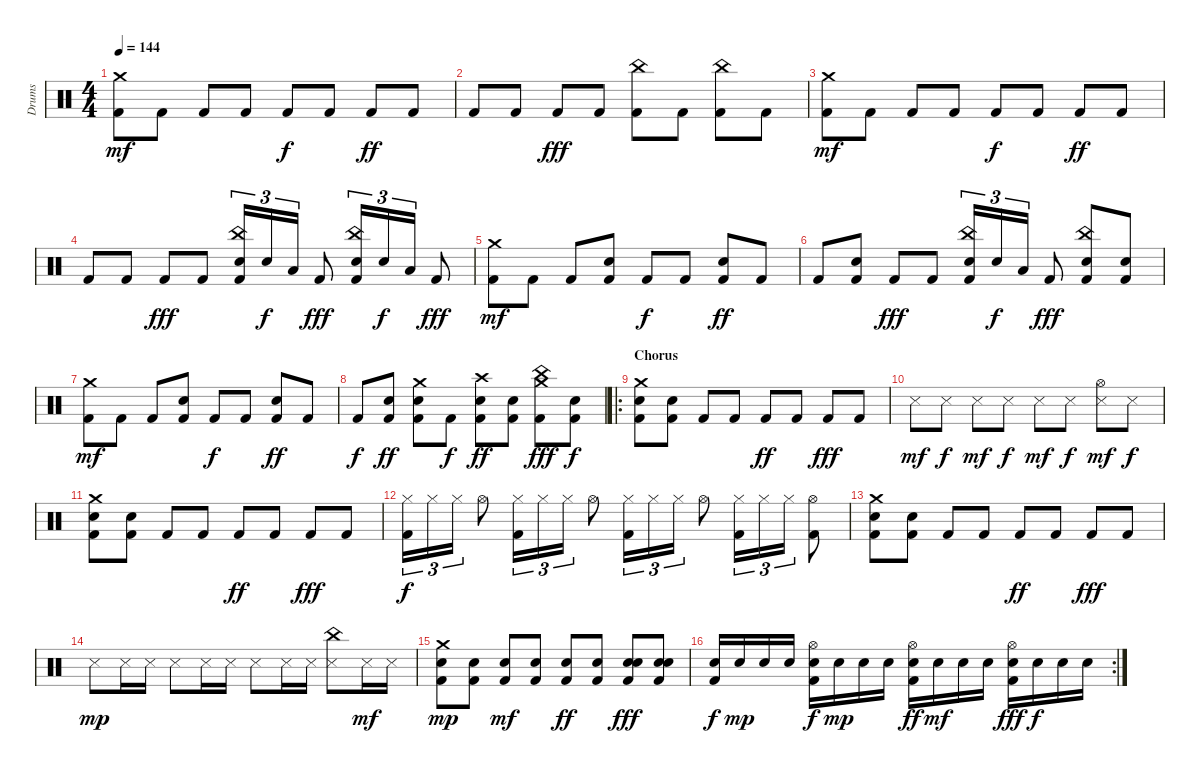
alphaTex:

\track ("Drums" "Drums") {instrument percussion}
\staff {score}
\articulation defaults
\ts (4 4)
\tempo 144
\clef neutral
\ks c
("Crash medium (hit)" "Kick (hit) 2").8{dy mf} "Kick (hit) 2".8 "Kick (hit) 2".8 "Kick (hit) 2".8 "Kick (hit) 2".8{dy f} "Kick (hit) 2".8 "Kick (hit) 2".8{dy ff} "Kick (hit) 2".8 |
"Kick (hit) 2".8 "Kick (hit) 2".8 "Kick (hit) 2".8{dy fff} "Kick (hit) 2".8 ("China (hit)" "Kick (hit) 2").8 "Kick (hit) 2".8 ("China (hit)" "Kick (hit) 2").8 "Kick (hit) 2".8 |
("Crash medium (hit)" "Kick (hit) 2").8{dy mf} "Kick (hit) 2".8 "Kick (hit) 2".8 "Kick (hit) 2".8 "Kick (hit) 2".8{dy f} "Kick (hit) 2".8 "Kick (hit) 2".8{dy ff} "Kick (hit) 2".8 |
"Kick (hit) 2".8 "Kick (hit) 2".8 "Kick (hit) 2".8{dy fff} "Kick (hit) 2".8 ("China (hit)" "Snare (hit) 2" "Kick (hit) 2").16{tu (3 2)} "Snare (hit) 2".16{tu (3 2) dy f} "Low Tom (hit)".16{tu (3 2)} "Kick (hit) 2".8{dy fff} ("China (hit)" "Snare (hit) 2" "Kick (hit) 2").16{tu (3 2)} "Snare (hit) 2".16{tu (3 2) dy f} "Low Tom (hit)".16{tu (3 2)} "Kick (hit) 2".8{dy fff} |
("Crash medium (hit)" "Kick (hit) 2").8{dy mf} "Kick (hit) 2".8 "Kick (hit) 2".8 ("Snare (hit) 2" "Kick (hit) 2").8 "Kick (hit) 2".8{dy f} "Kick (hit) 2".8 ("Snare (hit) 2" "Kick (hit) 2").8{dy ff} "Kick (hit) 2".8 |
"Kick (hit) 2".8 ("Snare (hit) 2" "Kick (hit) 2").8 "Kick (hit) 2".8{dy fff} "Kick (hit) 2".8 ("China (hit)" "Snare (hit) 2" "Kick (hit) 2").16{tu (3 2)} "Snare (hit) 2".16{tu (3 2) dy f} "Low Tom (hit)".16{tu (3 2)} "Kick (hit) 2".8{dy fff} ("China (hit)" "Snare (hit) 2" "Kick (hit) 2").8 ("Snare (hit) 2" "Kick (hit) 2").8 |
("Crash medium (hit)" "Kick (hit) 2").8{dy mf} "Kick (hit) 2".8 "Kick (hit) 2".8 ("Snare (hit) 2" "Kick (hit) 2").8 "Kick (hit) 2".8{dy f} "Kick (hit) 2".8 ("Snare (hit) 2" "Kick (hit) 2").8{dy ff} "Kick (hit) 2".8 |
"Kick (hit) 2".8{dy f} ("Snare (hit) 2" "Kick (hit) 2").8{dy ff} ("Crash medium (hit)" "Snare (hit) 2" "Kick (hit) 2").8 "Kick (hit) 2".8{dy f} ("Crash high (hit)" "Snare (hit) 2" "Kick (hit) 2").8{dy ff} ("Snare (hit) 2" "Kick (hit) 2").8 ("Crash medium (hit)" "China (hit)" "Kick (hit) 2").8{dy fff} ("Snare (hit) 2" "Kick (hit) 2").8{dy f} |
\ro
\section ("" "Chorus")
("Crash medium (hit)" "Snare (hit) 2" "Kick (hit) 2").8 ("Snare (hit) 2" "Kick (hit) 2").8 "Kick (hit) 2".8 "Kick (hit) 2".8 "Kick (hit) 2".8{dy ff} "Kick (hit) 2".8 "Kick (hit) 2".8{dy fff} "Kick (hit) 2".8 |
"Snare (side stick) 3".8{dy mf} "Metronome (hit)".8{dy f} "Snare (side stick) 3".8{dy mf} "Metronome (hit)".8{dy f} "Snare (side stick) 3".8{dy mf} "Metronome (hit)".8{dy f} ("Hi-Hat (open)" "Snare (side stick) 3").8{dy mf} "Metronome (hit)".8{dy f} |
("Crash medium (hit)" "Snare (hit) 2" "Kick (hit) 2").8 ("Snare (hit) 2" "Kick (hit) 2").8 "Kick (hit) 2".8 "Kick (hit) 2".8 "Kick (hit) 2".8{dy ff} "Kick (hit) 2".8 "Kick (hit) 2".8{dy fff} "Kick (hit) 2".8 |
("Hi-Hat (closed)" "Kick (hit) 2").16{tu (3 2) dy f} "Hi-Hat (closed)".16{tu (3 2)} "Hi-Hat (closed)".16{tu (3 2)} "Hi-Hat (open)".8 ("Hi-Hat (closed)" "Kick (hit) 2").16{tu (3 2)} "Hi-Hat (closed)".16{tu (3 2)} "Hi-Hat (closed)".16{tu (3 2)} "Hi-Hat (open)".8 ("Hi-Hat (closed)" "Kick (hit) 2").16{tu (3 2)} "Hi-Hat (closed)".16{tu (3 2)} "Hi-Hat (closed)".16{tu (3 2)} "Hi-Hat (open)".8 ("Hi-Hat (closed)" "Kick (hit) 2").16{tu (3 2)} "Hi-Hat (closed)".16{tu (3 2)} "Hi-Hat (closed)".16{tu (3 2)} ("Hi-Hat (open)" "Kick (hit) 2").8 |
("Crash medium (hit)" "Snare (hit) 2" "Kick (hit) 2").8 ("Snare (hit) 2" "Kick (hit) 2").8 "Kick (hit) 2".8 "Kick (hit) 2".8 "Kick (hit) 2".8{dy ff} "Kick (hit) 2".8 "Kick (hit) 2".8{dy fff} "Kick (hit) 2".8 |
"Snare (side stick) 3".8{dy mp} "Snare (side stick) 3".16 "Snare (side stick) 3".16 "Snare (side stick) 3".8 "Snare (side stick) 3".16 "Snare (side stick) 3".16 "Snare (side stick) 3".8 "Snare (side stick) 3".16 "Snare (side stick) 3".16 ("China (hit)" "Snare (side stick) 3").8 "Snare (side stick) 3".16{dy mf} "Snare (side stick) 3".16 |
("Crash medium (hit)" "Snare (hit) 2" "Kick (hit) 2").8{dy mp} ("Snare (hit) 2" "Kick (hit) 2").8 ("Snare (hit) 2" "Kick (hit) 2").8{dy mf} ("Snare (hit) 2" "Kick (hit) 2").8 ("Snare (hit) 2" "Kick (hit) 2").8{dy ff} ("Snare (hit) 2" "Kick (hit) 2").8 ("Snare (hit) 2" "Snare (hit) 2" "Kick (hit) 2").8{dy fff} ("Snare (hit) 2" "Snare (hit) 2" "Kick (hit) 2").8 |
\rc 2
("Snare (hit) 2" "Kick (hit) 2").16{dy f} "Snare (hit) 2".16{dy mp} "Snare (hit) 2".16 "Snare (hit) 2".16 ("Hi-Hat (open)" "Snare (hit) 2" "Kick (hit) 2").16{dy f} "Snare (hit) 2".16{dy mp} "Snare (hit) 2".16 "Snare (hit) 2".16 ("Hi-Hat (open)" "Snare (hit) 2" "Kick (hit) 2").16{dy ff} "Snare (hit) 2".16{dy mf} "Snare (hit) 2".16 "Snare (hit) 2".16 ("Hi-Hat (open)" "Snare (hit) 2" "Kick (hit) 2").16{dy fff} "Snare (hit) 2".16{dy f} "Snare (hit) 2".16 "Snare (hit) 2".16
